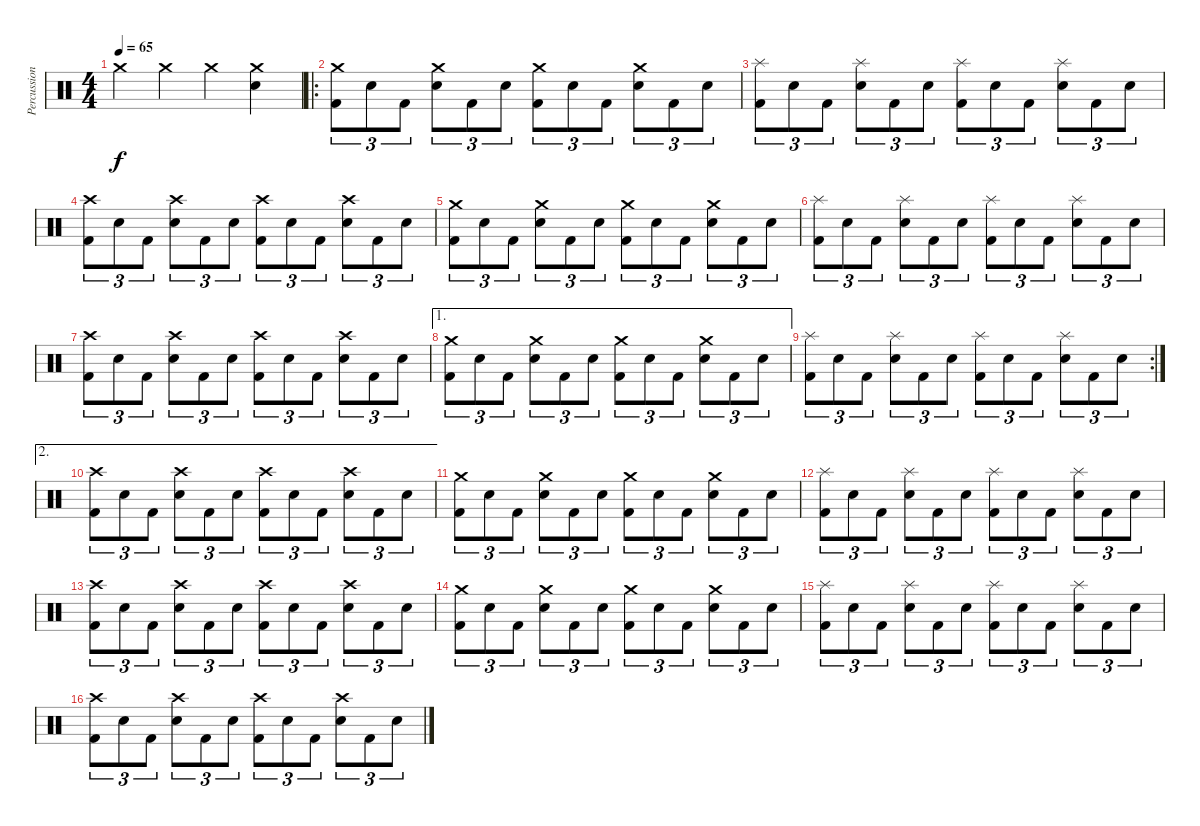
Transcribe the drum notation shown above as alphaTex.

\track ("Percussion" "Percussion") {instrument percussion}
\staff {score}
\articulation defaults
\ts (4 4)
\tempo 65
\clef neutral
\ks c "Crash medium (hit)".4{dy f} "Crash medium (hit)".4 "Crash medium (hit)".4
("Crash medium (hit)" "Snare (hit) 2").4 |
\ro
("Crash medium (hit)" "Kick (hit) 2").8{tu (3 2)} "Snare (hit) 2".8{tu (3 2)} "Kick (hit) 2".8{tu (3 2)} ("Crash medium (hit)" "Snare (hit) 2").8{tu (3 2)} "Kick (hit) 2".8{tu (3 2)} "Snare (hit) 2".8{tu (3 2)} ("Crash medium (hit)" "Kick (hit) 2").8{tu (3 2)} "Snare (hit) 2".8{tu (3 2)} "Kick (hit) 2".8{tu (3 2)} ("Crash medium (hit)" "Snare (hit) 2").8{tu (3 2)} "Kick (hit) 2".8{tu (3 2)} "Snare (hit) 2".8{tu (3 2)} |
("Splash (hit)" "Kick (hit) 2").8{tu (3 2)} "Snare (hit) 2".8{tu (3 2)} "Kick (hit) 2".8{tu (3 2)} ("Splash (hit)" "Snare (hit) 2").8{tu (3 2)} "Kick (hit) 2".8{tu (3 2)} "Snare (hit) 2".8{tu (3 2)} ("Splash (hit)" "Kick (hit) 2").8{tu (3 2)} "Snare (hit) 2".8{tu (3 2)} "Kick (hit) 2".8{tu (3 2)} ("Splash (hit)" "Snare (hit) 2").8{tu (3 2)} "Kick (hit) 2".8{tu (3 2)} "Snare (hit) 2".8{tu (3 2)} |
("Crash high (hit)" "Kick (hit) 2").8{tu (3 2)} "Snare (hit) 2".8{tu (3 2)} "Kick (hit) 2".8{tu (3 2)} ("Crash high (hit)" "Snare (hit) 2").8{tu (3 2)} "Kick (hit) 2".8{tu (3 2)} "Snare (hit) 2".8{tu (3 2)} ("Crash high (hit)" "Kick (hit) 2").8{tu (3 2)} "Snare (hit) 2".8{tu (3 2)} "Kick (hit) 2".8{tu (3 2)} ("Crash high (hit)" "Snare (hit) 2").8{tu (3 2)} "Kick (hit) 2".8{tu (3 2)} "Snare (hit) 2".8{tu (3 2)} |
("Crash medium (hit)" "Kick (hit) 2").8{tu (3 2)} "Snare (hit) 2".8{tu (3 2)} "Kick (hit) 2".8{tu (3 2)} ("Crash medium (hit)" "Snare (hit) 2").8{tu (3 2)} "Kick (hit) 2".8{tu (3 2)} "Snare (hit) 2".8{tu (3 2)} ("Crash medium (hit)" "Kick (hit) 2").8{tu (3 2)} "Snare (hit) 2".8{tu (3 2)} "Kick (hit) 2".8{tu (3 2)} ("Crash medium (hit)" "Snare (hit) 2").8{tu (3 2)} "Kick (hit) 2".8{tu (3 2)} "Snare (hit) 2".8{tu (3 2)} |
("Splash (hit)" "Kick (hit) 2").8{tu (3 2)} "Snare (hit) 2".8{tu (3 2)} "Kick (hit) 2".8{tu (3 2)} ("Splash (hit)" "Snare (hit) 2").8{tu (3 2)} "Kick (hit) 2".8{tu (3 2)} "Snare (hit) 2".8{tu (3 2)} ("Splash (hit)" "Kick (hit) 2").8{tu (3 2)} "Snare (hit) 2".8{tu (3 2)} "Kick (hit) 2".8{tu (3 2)} ("Splash (hit)" "Snare (hit) 2").8{tu (3 2)} "Kick (hit) 2".8{tu (3 2)} "Snare (hit) 2".8{tu (3 2)} |
("Crash high (hit)" "Kick (hit) 2").8{tu (3 2)} "Snare (hit) 2".8{tu (3 2)} "Kick (hit) 2".8{tu (3 2)} ("Crash high (hit)" "Snare (hit) 2").8{tu (3 2)} "Kick (hit) 2".8{tu (3 2)} "Snare (hit) 2".8{tu (3 2)} ("Crash high (hit)" "Kick (hit) 2").8{tu (3 2)} "Snare (hit) 2".8{tu (3 2)} "Kick (hit) 2".8{tu (3 2)} ("Crash high (hit)" "Snare (hit) 2").8{tu (3 2)} "Kick (hit) 2".8{tu (3 2)} "Snare (hit) 2".8{tu (3 2)} |
\ae 1
("Crash medium (hit)" "Kick (hit) 2").8{tu (3 2)} "Snare (hit) 2".8{tu (3 2)} "Kick (hit) 2".8{tu (3 2)} ("Crash medium (hit)" "Snare (hit) 2").8{tu (3 2)} "Kick (hit) 2".8{tu (3 2)} "Snare (hit) 2".8{tu (3 2)} ("Crash medium (hit)" "Kick (hit) 2").8{tu (3 2)} "Snare (hit) 2".8{tu (3 2)} "Kick (hit) 2".8{tu (3 2)} ("Crash medium (hit)" "Snare (hit) 2").8{tu (3 2)} "Kick (hit) 2".8{tu (3 2)} "Snare (hit) 2".8{tu (3 2)} |
\rc 2
("Splash (hit)" "Kick (hit) 2").8{tu (3 2)} "Snare (hit) 2".8{tu (3 2)} "Kick (hit) 2".8{tu (3 2)} ("Splash (hit)" "Snare (hit) 2").8{tu (3 2)} "Kick (hit) 2".8{tu (3 2)} "Snare (hit) 2".8{tu (3 2)} ("Splash (hit)" "Kick (hit) 2").8{tu (3 2)} "Snare (hit) 2".8{tu (3 2)} "Kick (hit) 2".8{tu (3 2)} ("Splash (hit)" "Snare (hit) 2").8{tu (3 2)} "Kick (hit) 2".8{tu (3 2)} "Snare (hit) 2".8{tu (3 2)} |
\ae 2
("Crash high (hit)" "Kick (hit) 2").8{tu (3 2)} "Snare (hit) 2".8{tu (3 2)} "Kick (hit) 2".8{tu (3 2)} ("Crash high (hit)" "Snare (hit) 2").8{tu (3 2)} "Kick (hit) 2".8{tu (3 2)} "Snare (hit) 2".8{tu (3 2)} ("Crash high (hit)" "Kick (hit) 2").8{tu (3 2)} "Snare (hit) 2".8{tu (3 2)} "Kick (hit) 2".8{tu (3 2)} ("Crash high (hit)" "Snare (hit) 2").8{tu (3 2)} "Kick (hit) 2".8{tu (3 2)} "Snare (hit) 2".8{tu (3 2)} |
("Crash medium (hit)" "Kick (hit) 2").8{tu (3 2)} "Snare (hit) 2".8{tu (3 2)} "Kick (hit) 2".8{tu (3 2)} ("Crash medium (hit)" "Snare (hit) 2").8{tu (3 2)} "Kick (hit) 2".8{tu (3 2)} "Snare (hit) 2".8{tu (3 2)} ("Crash medium (hit)" "Kick (hit) 2").8{tu (3 2)} "Snare (hit) 2".8{tu (3 2)} "Kick (hit) 2".8{tu (3 2)} ("Crash medium (hit)" "Snare (hit) 2").8{tu (3 2)} "Kick (hit) 2".8{tu (3 2)} "Snare (hit) 2".8{tu (3 2)} |
("Splash (hit)" "Kick (hit) 2").8{tu (3 2)} "Snare (hit) 2".8{tu (3 2)} "Kick (hit) 2".8{tu (3 2)} ("Splash (hit)" "Snare (hit) 2").8{tu (3 2)} "Kick (hit) 2".8{tu (3 2)} "Snare (hit) 2".8{tu (3 2)} ("Splash (hit)" "Kick (hit) 2").8{tu (3 2)} "Snare (hit) 2".8{tu (3 2)} "Kick (hit) 2".8{tu (3 2)} ("Splash (hit)" "Snare (hit) 2").8{tu (3 2)} "Kick (hit) 2".8{tu (3 2)} "Snare (hit) 2".8{tu (3 2)} |
("Crash high (hit)" "Kick (hit) 2").8{tu (3 2)} "Snare (hit) 2".8{tu (3 2)} "Kick (hit) 2".8{tu (3 2)} ("Crash high (hit)" "Snare (hit) 2").8{tu (3 2)} "Kick (hit) 2".8{tu (3 2)} "Snare (hit) 2".8{tu (3 2)} ("Crash high (hit)" "Kick (hit) 2").8{tu (3 2)} "Snare (hit) 2".8{tu (3 2)} "Kick (hit) 2".8{tu (3 2)} ("Crash high (hit)" "Snare (hit) 2").8{tu (3 2)} "Kick (hit) 2".8{tu (3 2)} "Snare (hit) 2".8{tu (3 2)} |
("Crash medium (hit)" "Kick (hit) 2").8{tu (3 2)} "Snare (hit) 2".8{tu (3 2)} "Kick (hit) 2".8{tu (3 2)} ("Crash medium (hit)" "Snare (hit) 2").8{tu (3 2)} "Kick (hit) 2".8{tu (3 2)} "Snare (hit) 2".8{tu (3 2)} ("Crash medium (hit)" "Kick (hit) 2").8{tu (3 2)} "Snare (hit) 2".8{tu (3 2)} "Kick (hit) 2".8{tu (3 2)} ("Crash medium (hit)" "Snare (hit) 2").8{tu (3 2)} "Kick (hit) 2".8{tu (3 2)} "Snare (hit) 2".8{tu (3 2)} |
("Splash (hit)" "Kick (hit) 2").8{tu (3 2)} "Snare (hit) 2".8{tu (3 2)} "Kick (hit) 2".8{tu (3 2)} ("Splash (hit)" "Snare (hit) 2").8{tu (3 2)} "Kick (hit) 2".8{tu (3 2)} "Snare (hit) 2".8{tu (3 2)} ("Splash (hit)" "Kick (hit) 2").8{tu (3 2)} "Snare (hit) 2".8{tu (3 2)} "Kick (hit) 2".8{tu (3 2)} ("Splash (hit)" "Snare (hit) 2").8{tu (3 2)} "Kick (hit) 2".8{tu (3 2)} "Snare (hit) 2".8{tu (3 2)} |
("Crash high (hit)" "Kick (hit) 2").8{tu (3 2)} "Snare (hit) 2".8{tu (3 2)} "Kick (hit) 2".8{tu (3 2)} ("Crash high (hit)" "Snare (hit) 2").8{tu (3 2)} "Kick (hit) 2".8{tu (3 2)} "Snare (hit) 2".8{tu (3 2)} ("Crash high (hit)" "Kick (hit) 2").8{tu (3 2)} "Snare (hit) 2".8{tu (3 2)} "Kick (hit) 2".8{tu (3 2)} ("Crash high (hit)" "Snare (hit) 2").8{tu (3 2)} "Kick (hit) 2".8{tu (3 2)} "Snare (hit) 2".8{tu (3 2)}
